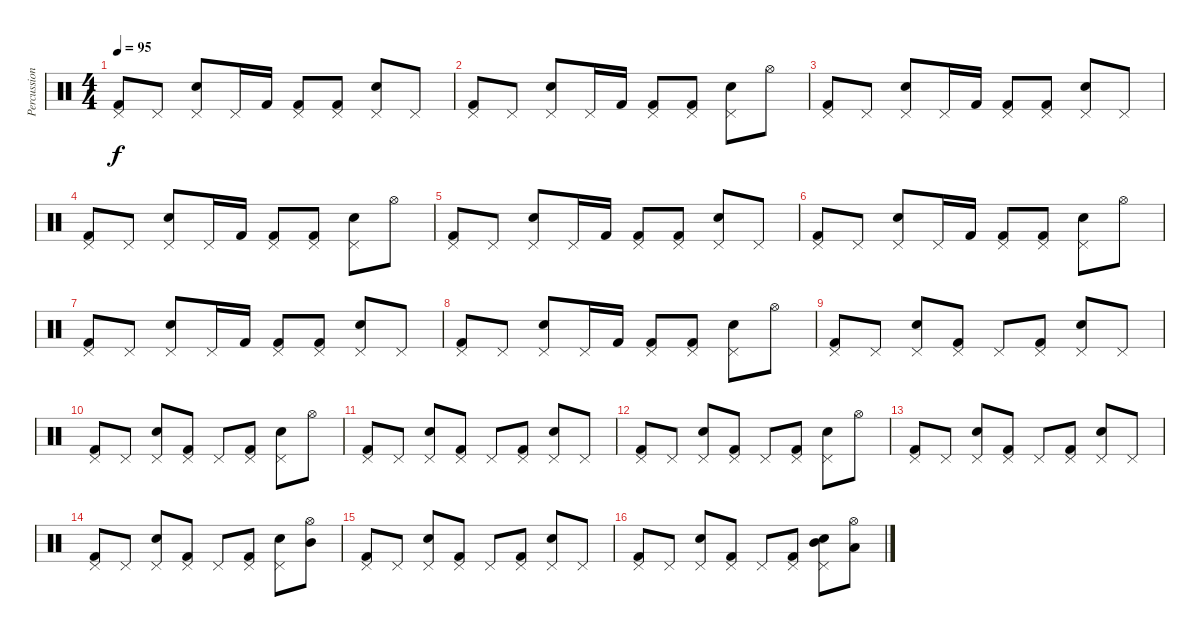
\track ("Percussion" "Percussion") {instrument percussion}
\staff {score}
\articulation defaults
\ts (4 4)
\tempo 95
\clef neutral
\ks c
("Pedal Hi-Hat (hit)" "Kick (hit) 2").8{dy f} "Pedal Hi-Hat (hit)".8 ("Pedal Hi-Hat (hit)" "Snare (hit) 2").8 "Pedal Hi-Hat (hit)".16 "Kick (hit) 2".16 ("Pedal Hi-Hat (hit)" "Kick (hit) 2").8 ("Pedal Hi-Hat (hit)" "Kick (hit) 2").8 ("Pedal Hi-Hat (hit)" "Snare (hit) 2").8 "Pedal Hi-Hat (hit)".8 |
("Pedal Hi-Hat (hit)" "Kick (hit) 2").8 "Pedal Hi-Hat (hit)".8 ("Pedal Hi-Hat (hit)" "Snare (hit) 2").8 "Pedal Hi-Hat (hit)".16 "Kick (hit) 2".16 ("Pedal Hi-Hat (hit)" "Kick (hit) 2").8 ("Pedal Hi-Hat (hit)" "Kick (hit) 2").8 ("Pedal Hi-Hat (hit)" "Snare (hit) 2").8 "Hi-Hat (open)".8 |
("Pedal Hi-Hat (hit)" "Kick (hit) 2").8 "Pedal Hi-Hat (hit)".8 ("Pedal Hi-Hat (hit)" "Snare (hit) 2").8 "Pedal Hi-Hat (hit)".16 "Kick (hit) 2".16 ("Pedal Hi-Hat (hit)" "Kick (hit) 2").8 ("Pedal Hi-Hat (hit)" "Kick (hit) 2").8 ("Pedal Hi-Hat (hit)" "Snare (hit) 2").8 "Pedal Hi-Hat (hit)".8 |
("Pedal Hi-Hat (hit)" "Kick (hit) 2").8 "Pedal Hi-Hat (hit)".8 ("Pedal Hi-Hat (hit)" "Snare (hit) 2").8 "Pedal Hi-Hat (hit)".16 "Kick (hit) 2".16 ("Pedal Hi-Hat (hit)" "Kick (hit) 2").8 ("Pedal Hi-Hat (hit)" "Kick (hit) 2").8 ("Pedal Hi-Hat (hit)" "Snare (hit) 2").8 "Hi-Hat (open)".8 |
("Pedal Hi-Hat (hit)" "Kick (hit) 2").8 "Pedal Hi-Hat (hit)".8 ("Pedal Hi-Hat (hit)" "Snare (hit) 2").8 "Pedal Hi-Hat (hit)".16 "Kick (hit) 2".16 ("Pedal Hi-Hat (hit)" "Kick (hit) 2").8 ("Pedal Hi-Hat (hit)" "Kick (hit) 2").8 ("Pedal Hi-Hat (hit)" "Snare (hit) 2").8 "Pedal Hi-Hat (hit)".8 |
("Pedal Hi-Hat (hit)" "Kick (hit) 2").8 "Pedal Hi-Hat (hit)".8 ("Pedal Hi-Hat (hit)" "Snare (hit) 2").8 "Pedal Hi-Hat (hit)".16 "Kick (hit) 2".16 ("Pedal Hi-Hat (hit)" "Kick (hit) 2").8 ("Pedal Hi-Hat (hit)" "Kick (hit) 2").8 ("Pedal Hi-Hat (hit)" "Snare (hit) 2").8 "Hi-Hat (open)".8 |
("Pedal Hi-Hat (hit)" "Kick (hit) 2").8 "Pedal Hi-Hat (hit)".8 ("Pedal Hi-Hat (hit)" "Snare (hit) 2").8 "Pedal Hi-Hat (hit)".16 "Kick (hit) 2".16 ("Pedal Hi-Hat (hit)" "Kick (hit) 2").8 ("Pedal Hi-Hat (hit)" "Kick (hit) 2").8 ("Pedal Hi-Hat (hit)" "Snare (hit) 2").8 "Pedal Hi-Hat (hit)".8 |
("Pedal Hi-Hat (hit)" "Kick (hit) 2").8 "Pedal Hi-Hat (hit)".8 ("Pedal Hi-Hat (hit)" "Snare (hit) 2").8 "Pedal Hi-Hat (hit)".16 "Kick (hit) 2".16 ("Pedal Hi-Hat (hit)" "Kick (hit) 2").8 ("Pedal Hi-Hat (hit)" "Kick (hit) 2").8 ("Pedal Hi-Hat (hit)" "Snare (hit) 2").8 "Hi-Hat (open)".8 |
("Pedal Hi-Hat (hit)" "Kick (hit) 2").8 "Pedal Hi-Hat (hit)".8 ("Pedal Hi-Hat (hit)" "Snare (hit) 2").8 ("Pedal Hi-Hat (hit)" "Kick (hit) 2").8 "Pedal Hi-Hat (hit)".8 ("Pedal Hi-Hat (hit)" "Kick (hit) 2").8 ("Pedal Hi-Hat (hit)" "Snare (hit) 2").8 "Pedal Hi-Hat (hit)".8 |
("Pedal Hi-Hat (hit)" "Kick (hit) 2").8 "Pedal Hi-Hat (hit)".8 ("Pedal Hi-Hat (hit)" "Snare (hit) 2").8 ("Pedal Hi-Hat (hit)" "Kick (hit) 2").8 "Pedal Hi-Hat (hit)".8 ("Pedal Hi-Hat (hit)" "Kick (hit) 2").8 ("Pedal Hi-Hat (hit)" "Snare (hit) 2").8 "Hi-Hat (open)".8 |
("Pedal Hi-Hat (hit)" "Kick (hit) 2").8 "Pedal Hi-Hat (hit)".8 ("Pedal Hi-Hat (hit)" "Snare (hit) 2").8 ("Pedal Hi-Hat (hit)" "Kick (hit) 2").8 "Pedal Hi-Hat (hit)".8 ("Pedal Hi-Hat (hit)" "Kick (hit) 2").8 ("Pedal Hi-Hat (hit)" "Snare (hit) 2").8 "Pedal Hi-Hat (hit)".8 |
("Pedal Hi-Hat (hit)" "Kick (hit) 2").8 "Pedal Hi-Hat (hit)".8 ("Pedal Hi-Hat (hit)" "Snare (hit) 2").8 ("Pedal Hi-Hat (hit)" "Kick (hit) 2").8 "Pedal Hi-Hat (hit)".8 ("Pedal Hi-Hat (hit)" "Kick (hit) 2").8 ("Pedal Hi-Hat (hit)" "Snare (hit) 2").8 "Hi-Hat (open)".8 |
("Pedal Hi-Hat (hit)" "Kick (hit) 2").8 "Pedal Hi-Hat (hit)".8 ("Pedal Hi-Hat (hit)" "Snare (hit) 2").8 ("Pedal Hi-Hat (hit)" "Kick (hit) 2").8 "Pedal Hi-Hat (hit)".8 ("Pedal Hi-Hat (hit)" "Kick (hit) 2").8 ("Pedal Hi-Hat (hit)" "Snare (hit) 2").8 "Pedal Hi-Hat (hit)".8 |
("Pedal Hi-Hat (hit)" "Kick (hit) 2").8 "Pedal Hi-Hat (hit)".8 ("Pedal Hi-Hat (hit)" "Snare (hit) 2").8 ("Pedal Hi-Hat (hit)" "Kick (hit) 2").8 "Pedal Hi-Hat (hit)".8 ("Pedal Hi-Hat (hit)" "Kick (hit) 2").8 ("Pedal Hi-Hat (hit)" "Snare (hit) 2").8 ("Mid Tom (hit)" "Hi-Hat (open)").8 |
("Pedal Hi-Hat (hit)" "Kick (hit) 2").8 "Pedal Hi-Hat (hit)".8 ("Pedal Hi-Hat (hit)" "Snare (hit) 2").8 ("Pedal Hi-Hat (hit)" "Kick (hit) 2").8 "Pedal Hi-Hat (hit)".8 ("Pedal Hi-Hat (hit)" "Kick (hit) 2").8 ("Pedal Hi-Hat (hit)" "Snare (hit) 2").8 "Pedal Hi-Hat (hit)".8 |
("Pedal Hi-Hat (hit)" "Kick (hit) 2").8 "Pedal Hi-Hat (hit)".8 ("Pedal Hi-Hat (hit)" "Snare (hit) 2").8 ("Pedal Hi-Hat (hit)" "Kick (hit) 2").8 "Pedal Hi-Hat (hit)".8 ("Pedal Hi-Hat (hit)" "Kick (hit) 2").8 ("Mid Tom (hit)" "Pedal Hi-Hat (hit)" "Snare (hit) 2").8 ("Low Tom (hit)" "Hi-Hat (open)").8
